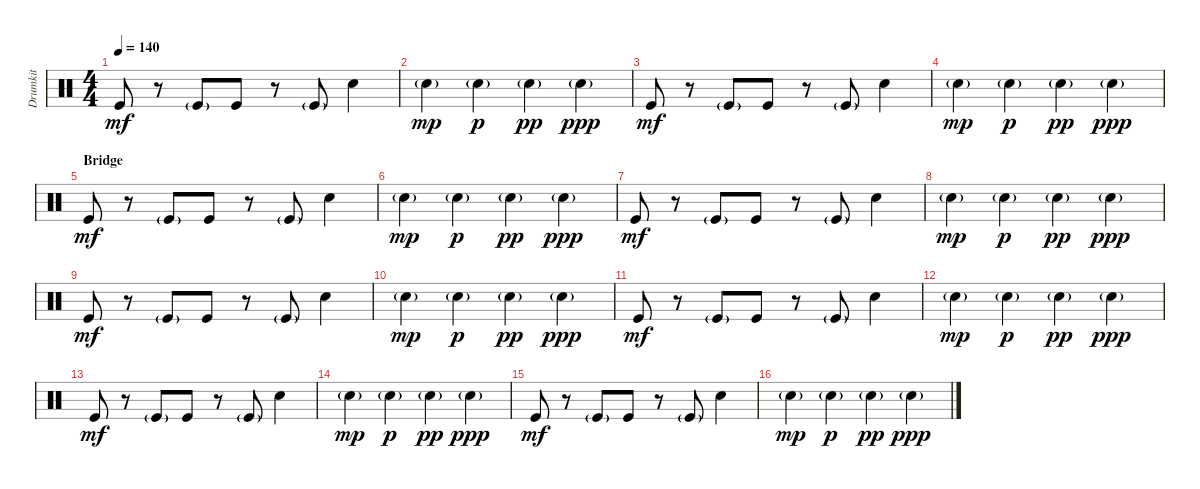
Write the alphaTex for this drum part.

\track ("Drumkit" "Drumkit") {instrument percussion}
\staff {score}
\articulation defaults
\ts (4 4)
\tempo 140
\clef neutral
\ks c "Kick (hit)".8{dy mf}
r.8 "Kick (hit)"{g}.8 "Kick (hit)".8 r.8 "Kick (hit)"{g}.8 "Snare (hit) 2".4 |
"Snare (hit) 2"{g}.4{dy mp} "Snare (hit) 2"{g}.4{dy p} "Snare (hit) 2"{g}.4{dy pp} "Snare (hit) 2"{g}.4{dy ppp} |
"Kick (hit)".8{dy mf} r.8 "Kick (hit)"{g}.8 "Kick (hit)".8 r.8 "Kick (hit)"{g}.8 "Snare (hit) 2".4 |
"Snare (hit) 2"{g}.4{dy mp} "Snare (hit) 2"{g}.4{dy p} "Snare (hit) 2"{g}.4{dy pp} "Snare (hit) 2"{g}.4{dy ppp} |
\section ("" "Bridge")
"Kick (hit)".8{dy mf} r.8 "Kick (hit)"{g}.8 "Kick (hit)".8 r.8 "Kick (hit)"{g}.8 "Snare (hit) 2".4 |
"Snare (hit) 2"{g}.4{dy mp} "Snare (hit) 2"{g}.4{dy p} "Snare (hit) 2"{g}.4{dy pp} "Snare (hit) 2"{g}.4{dy ppp} |
"Kick (hit)".8{dy mf} r.8 "Kick (hit)"{g}.8 "Kick (hit)".8 r.8 "Kick (hit)"{g}.8 "Snare (hit) 2".4 |
"Snare (hit) 2"{g}.4{dy mp} "Snare (hit) 2"{g}.4{dy p} "Snare (hit) 2"{g}.4{dy pp} "Snare (hit) 2"{g}.4{dy ppp} |
"Kick (hit)".8{dy mf} r.8 "Kick (hit)"{g}.8 "Kick (hit)".8 r.8 "Kick (hit)"{g}.8 "Snare (hit) 2".4 |
"Snare (hit) 2"{g}.4{dy mp} "Snare (hit) 2"{g}.4{dy p} "Snare (hit) 2"{g}.4{dy pp} "Snare (hit) 2"{g}.4{dy ppp} |
"Kick (hit)".8{dy mf} r.8 "Kick (hit)"{g}.8 "Kick (hit)".8 r.8 "Kick (hit)"{g}.8 "Snare (hit) 2".4 |
"Snare (hit) 2"{g}.4{dy mp} "Snare (hit) 2"{g}.4{dy p} "Snare (hit) 2"{g}.4{dy pp} "Snare (hit) 2"{g}.4{dy ppp} |
"Kick (hit)".8{dy mf} r.8 "Kick (hit)"{g}.8 "Kick (hit)".8 r.8 "Kick (hit)"{g}.8 "Snare (hit) 2".4 |
"Snare (hit) 2"{g}.4{dy mp} "Snare (hit) 2"{g}.4{dy p} "Snare (hit) 2"{g}.4{dy pp} "Snare (hit) 2"{g}.4{dy ppp} |
"Kick (hit)".8{dy mf} r.8 "Kick (hit)"{g}.8 "Kick (hit)".8 r.8 "Kick (hit)"{g}.8 "Snare (hit) 2".4 |
"Snare (hit) 2"{g}.4{dy mp} "Snare (hit) 2"{g}.4{dy p} "Snare (hit) 2"{g}.4{dy pp} "Snare (hit) 2"{g}.4{dy ppp}
